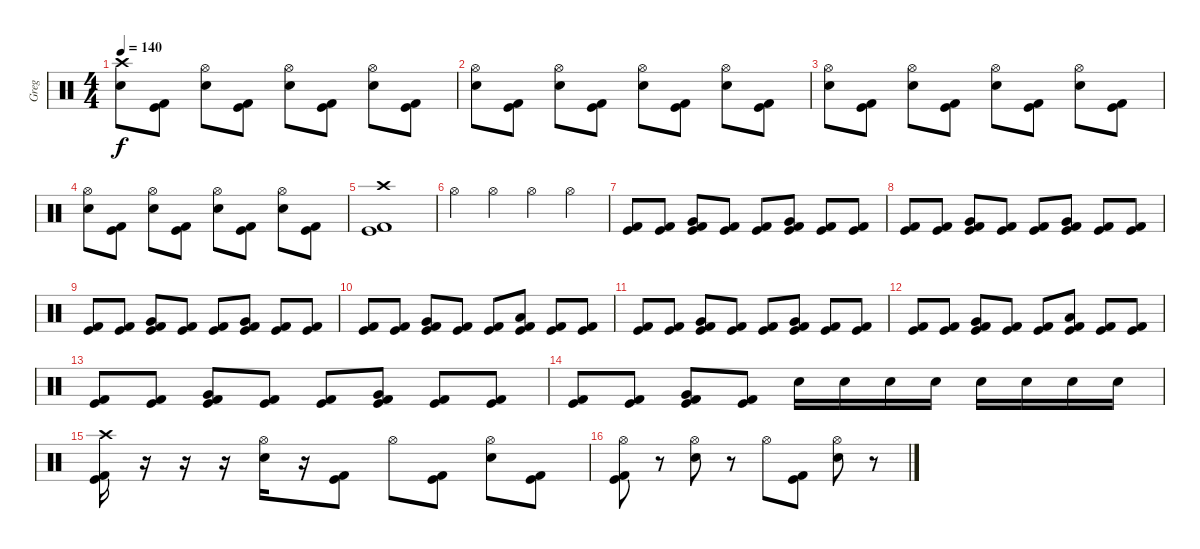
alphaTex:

\track ("Greg" "Greg") {instrument percussion}
\staff {score}
\articulation defaults
\ts (4 4)
\tempo 140
\clef neutral
\ks c
("Crash high (hit)" "Snare (hit) 2").8{dy f} ("Kick (hit)" "Kick (hit) 2").8 ("Hi-Hat (open)" "Snare (hit) 2").8 ("Kick (hit)" "Kick (hit) 2").8 ("Hi-Hat (open)" "Snare (hit) 2").8 ("Kick (hit)" "Kick (hit) 2").8 ("Hi-Hat (open)" "Snare (hit) 2").8 ("Kick (hit)" "Kick (hit) 2").8 |
("Hi-Hat (open)" "Snare (hit) 2").8 ("Kick (hit)" "Kick (hit) 2").8 ("Hi-Hat (open)" "Snare (hit) 2").8 ("Kick (hit)" "Kick (hit) 2").8 ("Hi-Hat (open)" "Snare (hit) 2").8 ("Kick (hit)" "Kick (hit) 2").8 ("Hi-Hat (open)" "Snare (hit) 2").8 ("Kick (hit)" "Kick (hit) 2").8 |
("Hi-Hat (open)" "Snare (hit) 2").8 ("Kick (hit)" "Kick (hit) 2").8 ("Hi-Hat (open)" "Snare (hit) 2").8 ("Kick (hit)" "Kick (hit) 2").8 ("Hi-Hat (open)" "Snare (hit) 2").8 ("Kick (hit)" "Kick (hit) 2").8 ("Hi-Hat (open)" "Snare (hit) 2").8 ("Kick (hit)" "Kick (hit) 2").8 |
("Hi-Hat (open)" "Snare (hit) 2").8 ("Kick (hit)" "Kick (hit) 2").8 ("Hi-Hat (open)" "Snare (hit) 2").8 ("Kick (hit)" "Kick (hit) 2").8 ("Hi-Hat (open)" "Snare (hit) 2").8 ("Kick (hit)" "Kick (hit) 2").8 ("Hi-Hat (open)" "Snare (hit) 2").8 ("Kick (hit)" "Kick (hit) 2").8 |
("Crash high (hit)" "Kick (hit)" "Kick (hit) 2").1 |
"Hi-Hat (open)".4 "Hi-Hat (open)".4 "Hi-Hat (open)".4 "Hi-Hat (open)".4 |
("Kick (hit)" "Kick (hit) 2").8 ("Kick (hit)" "Kick (hit) 2").8 ("Very Low Tom (hit)" "Kick (hit)" "Kick (hit) 2").8 ("Kick (hit)" "Kick (hit) 2").8 ("Kick (hit)" "Kick (hit) 2").8 ("Very Low Tom (hit)" "Kick (hit)" "Kick (hit) 2").8 ("Kick (hit)" "Kick (hit) 2").8 ("Kick (hit)" "Kick (hit) 2").8 |
("Kick (hit)" "Kick (hit) 2").8 ("Kick (hit)" "Kick (hit) 2").8 ("Very Low Tom (hit)" "Kick (hit)" "Kick (hit) 2").8 ("Kick (hit)" "Kick (hit) 2").8 ("Kick (hit)" "Kick (hit) 2").8 ("Very Low Tom (hit)" "Kick (hit)" "Kick (hit) 2").8 ("Kick (hit)" "Kick (hit) 2").8 ("Kick (hit)" "Kick (hit) 2").8 |
("Kick (hit)" "Kick (hit) 2").8 ("Kick (hit)" "Kick (hit) 2").8 ("Very Low Tom (hit)" "Kick (hit)" "Kick (hit) 2").8 ("Kick (hit)" "Kick (hit) 2").8 ("Kick (hit)" "Kick (hit) 2").8 ("Very Low Tom (hit)" "Kick (hit)" "Kick (hit) 2").8 ("Kick (hit)" "Kick (hit) 2").8 ("Kick (hit)" "Kick (hit) 2").8 |
("Kick (hit)" "Kick (hit) 2").8 ("Kick (hit)" "Kick (hit) 2").8 ("Very Low Tom (hit)" "Kick (hit)" "Kick (hit) 2").8 ("Kick (hit)" "Kick (hit) 2").8 ("Kick (hit)" "Kick (hit) 2").8 ("Low Tom (hit)" "Kick (hit)" "Kick (hit) 2").8 ("Kick (hit)" "Kick (hit) 2").8 ("Kick (hit)" "Kick (hit) 2").8 |
("Kick (hit)" "Kick (hit) 2").8 ("Kick (hit)" "Kick (hit) 2").8 ("Very Low Tom (hit)" "Kick (hit)" "Kick (hit) 2").8 ("Kick (hit)" "Kick (hit) 2").8 ("Kick (hit)" "Kick (hit) 2").8 ("Very Low Tom (hit)" "Kick (hit)" "Kick (hit) 2").8 ("Kick (hit)" "Kick (hit) 2").8 ("Kick (hit)" "Kick (hit) 2").8 |
("Kick (hit)" "Kick (hit) 2").8 ("Kick (hit)" "Kick (hit) 2").8 ("Very Low Tom (hit)" "Kick (hit)" "Kick (hit) 2").8 ("Kick (hit)" "Kick (hit) 2").8 ("Kick (hit)" "Kick (hit) 2").8 ("Low Tom (hit)" "Kick (hit)" "Kick (hit) 2").8 ("Kick (hit)" "Kick (hit) 2").8 ("Kick (hit)" "Kick (hit) 2").8 |
("Kick (hit)" "Kick (hit) 2").8 ("Kick (hit)" "Kick (hit) 2").8 ("Very Low Tom (hit)" "Kick (hit)" "Kick (hit) 2").8 ("Kick (hit)" "Kick (hit) 2").8 ("Kick (hit)" "Kick (hit) 2").8 ("Very Low Tom (hit)" "Kick (hit)" "Kick (hit) 2").8 ("Kick (hit)" "Kick (hit) 2").8 ("Kick (hit)" "Kick (hit) 2").8 |
("Kick (hit)" "Kick (hit) 2").8 ("Kick (hit)" "Kick (hit) 2").8 ("Very Low Tom (hit)" "Kick (hit)" "Kick (hit) 2").8 ("Kick (hit)" "Kick (hit) 2").8 "Snare (hit) 2".16 "Snare (hit) 2".16 "Snare (hit) 2".16 "Snare (hit) 2".16 "Snare (hit) 2".16 "Snare (hit) 2".16 "Snare (hit) 2".16 "Snare (hit) 2".16 |
("Crash high (hit)" "Kick (hit)" "Kick (hit) 2").16 r.16 r.16 r.16 ("Hi-Hat (open)" "Snare (hit) 2").16 r.16 ("Kick (hit)" "Kick (hit) 2").8 "Hi-Hat (open)".8 ("Kick (hit)" "Kick (hit) 2").8 ("Hi-Hat (open)" "Snare (hit) 2").8 ("Kick (hit)" "Kick (hit) 2").8 |
("Hi-Hat (open)" "Kick (hit)" "Kick (hit) 2").8 r.8 ("Hi-Hat (open)" "Snare (hit) 2").8 r.8 "Hi-Hat (open)".8 ("Kick (hit)" "Kick (hit) 2").8 ("Hi-Hat (open)" "Snare (hit) 2").8 r.8
